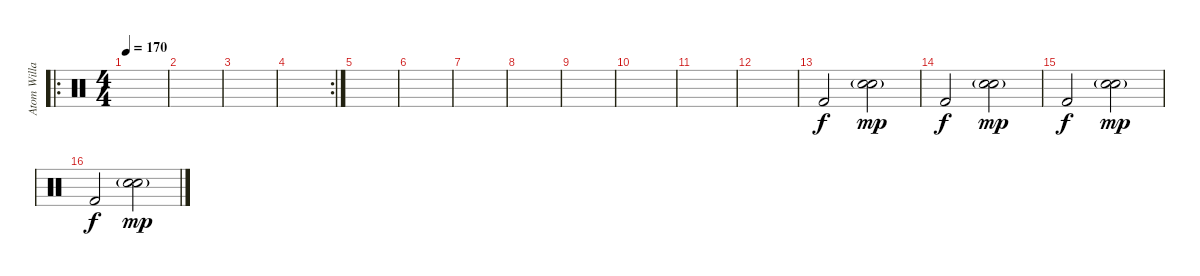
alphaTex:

\track ("Atom Willard" "Atom Willa") {instrument percussion}
\staff {score}
\articulation defaults
\ro
\ts (4 4)
\tempo 170
\clef neutral
\ks c
|
|
|
\rc 2
|
|
|
|
|
|
|
|
|
"Kick (hit) 2".2{volume 4} ("Electric Snare (hit)"{g} "Snare (hit) 2"{g}).2{dy mp} |
"Kick (hit) 2".2{dy f} ("Electric Snare (hit)"{g} "Snare (hit) 2"{g}).2{dy mp} |
"Kick (hit) 2".2{dy f volume 6} ("Electric Snare (hit)"{g} "Snare (hit) 2"{g}).2{dy mp} |
"Kick (hit) 2".2{dy f volume 8} ("Electric Snare (hit)"{g} "Snare (hit) 2"{g}).2{dy mp}
